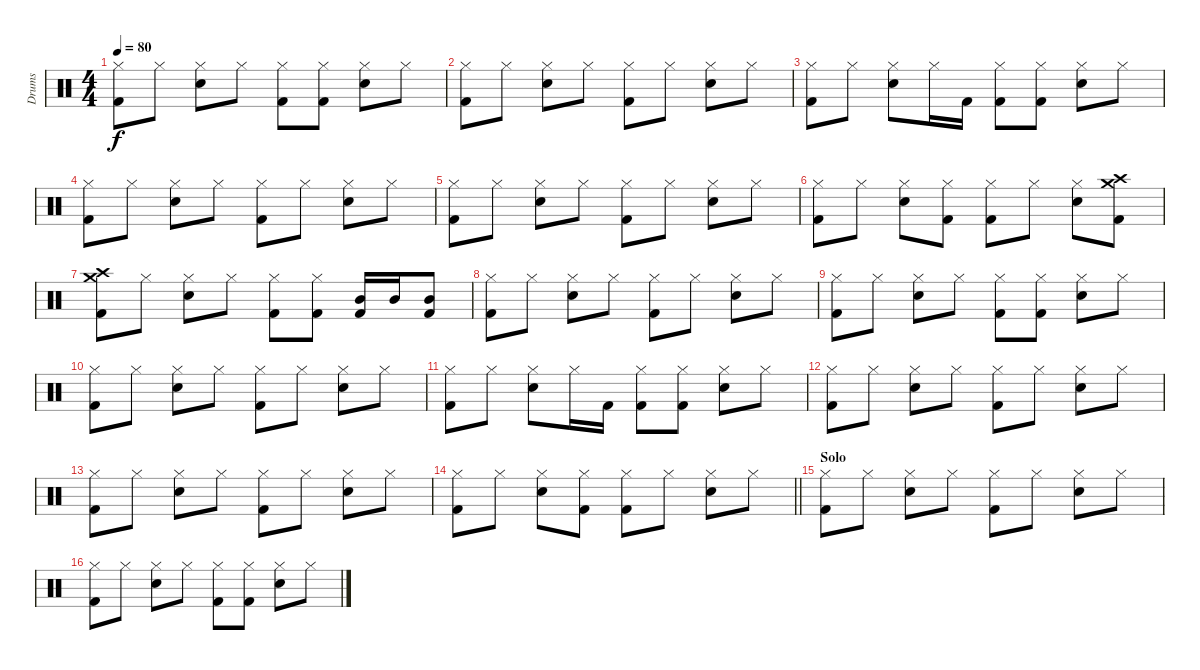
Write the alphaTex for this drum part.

\track ("Drums" "Drums") {instrument percussion}
\staff {score}
\articulation defaults
\ts (4 4)
\tempo 80
\clef neutral
\ks c
("Hi-Hat (closed)" "Kick (hit) 2").8{dy f} "Hi-Hat (closed)".8 ("Hi-Hat (closed)" "Snare (hit) 2").8 "Hi-Hat (closed)".8 ("Hi-Hat (closed)" "Kick (hit) 2").8 ("Hi-Hat (closed)" "Kick (hit) 2").8 ("Hi-Hat (closed)" "Snare (hit) 2").8 "Hi-Hat (closed)".8 |
("Hi-Hat (closed)" "Kick (hit) 2").8 "Hi-Hat (closed)".8 ("Hi-Hat (closed)" "Snare (hit) 2").8 "Hi-Hat (closed)".8 ("Hi-Hat (closed)" "Kick (hit) 2").8 "Hi-Hat (closed)".8 ("Hi-Hat (closed)" "Snare (hit) 2").8 "Hi-Hat (closed)".8 |
("Hi-Hat (closed)" "Kick (hit) 2").8 "Hi-Hat (closed)".8 ("Hi-Hat (closed)" "Snare (hit) 2").8 "Hi-Hat (closed)".16 "Kick (hit) 2".16 ("Hi-Hat (closed)" "Kick (hit) 2").8 ("Hi-Hat (closed)" "Kick (hit) 2").8 ("Hi-Hat (closed)" "Snare (hit) 2").8 "Hi-Hat (closed)".8 |
("Hi-Hat (closed)" "Kick (hit) 2").8 "Hi-Hat (closed)".8 ("Hi-Hat (closed)" "Snare (hit) 2").8 "Hi-Hat (closed)".8 ("Hi-Hat (closed)" "Kick (hit) 2").8 "Hi-Hat (closed)".8 ("Hi-Hat (closed)" "Snare (hit) 2").8 "Hi-Hat (closed)".8 |
("Hi-Hat (closed)" "Kick (hit) 2").8 "Hi-Hat (closed)".8 ("Hi-Hat (closed)" "Snare (hit) 2").8 "Hi-Hat (closed)".8 ("Hi-Hat (closed)" "Kick (hit) 2").8 "Hi-Hat (closed)".8 ("Hi-Hat (closed)" "Snare (hit) 2").8 "Hi-Hat (closed)".8 |
("Hi-Hat (closed)" "Kick (hit) 2").8 "Hi-Hat (closed)".8 ("Hi-Hat (closed)" "Snare (hit) 2").8 ("Hi-Hat (closed)" "Kick (hit) 2").8 ("Hi-Hat (closed)" "Kick (hit) 2").8 "Hi-Hat (closed)".8 ("Hi-Hat (closed)" "Snare (hit) 2").8 ("Crash medium (hit)" "Crash high (hit)" "Kick (hit) 2").8 |
("Crash medium (hit)" "Crash high (hit)" "Kick (hit) 2").8 "Hi-Hat (closed)".8 ("Hi-Hat (closed)" "Snare (hit) 2").8 "Hi-Hat (closed)".8 ("Hi-Hat (closed)" "Kick (hit) 2").8 ("Hi-Hat (closed)" "Kick (hit) 2").8 ("Mid Tom (hit)" "Kick (hit) 2").16 "Mid Tom (hit)".16 ("Mid Tom (hit)" "Kick (hit) 2").8 |
("Hi-Hat (closed)" "Kick (hit) 2").8 "Hi-Hat (closed)".8 ("Hi-Hat (closed)" "Snare (hit) 2").8 "Hi-Hat (closed)".8 ("Hi-Hat (closed)" "Kick (hit) 2").8 "Hi-Hat (closed)".8 ("Hi-Hat (closed)" "Snare (hit) 2").8 "Hi-Hat (closed)".8 |
("Hi-Hat (closed)" "Kick (hit) 2").8 "Hi-Hat (closed)".8 ("Hi-Hat (closed)" "Snare (hit) 2").8 "Hi-Hat (closed)".8 ("Hi-Hat (closed)" "Kick (hit) 2").8 ("Hi-Hat (closed)" "Kick (hit) 2").8 ("Hi-Hat (closed)" "Snare (hit) 2").8 "Hi-Hat (closed)".8 |
("Hi-Hat (closed)" "Kick (hit) 2").8 "Hi-Hat (closed)".8 ("Hi-Hat (closed)" "Snare (hit) 2").8 "Hi-Hat (closed)".8 ("Hi-Hat (closed)" "Kick (hit) 2").8 "Hi-Hat (closed)".8 ("Hi-Hat (closed)" "Snare (hit) 2").8 "Hi-Hat (closed)".8 |
("Hi-Hat (closed)" "Kick (hit) 2").8 "Hi-Hat (closed)".8 ("Hi-Hat (closed)" "Snare (hit) 2").8 "Hi-Hat (closed)".16 "Kick (hit) 2".16 ("Hi-Hat (closed)" "Kick (hit) 2").8 ("Hi-Hat (closed)" "Kick (hit) 2").8 ("Hi-Hat (closed)" "Snare (hit) 2").8 "Hi-Hat (closed)".8 |
("Hi-Hat (closed)" "Kick (hit) 2").8 "Hi-Hat (closed)".8 ("Hi-Hat (closed)" "Snare (hit) 2").8 "Hi-Hat (closed)".8 ("Hi-Hat (closed)" "Kick (hit) 2").8 "Hi-Hat (closed)".8 ("Hi-Hat (closed)" "Snare (hit) 2").8 "Hi-Hat (closed)".8 |
("Hi-Hat (closed)" "Kick (hit) 2").8 "Hi-Hat (closed)".8 ("Hi-Hat (closed)" "Snare (hit) 2").8 "Hi-Hat (closed)".8 ("Hi-Hat (closed)" "Kick (hit) 2").8 "Hi-Hat (closed)".8 ("Hi-Hat (closed)" "Snare (hit) 2").8 "Hi-Hat (closed)".8 |
\barLineRight lightlight
("Hi-Hat (closed)" "Kick (hit) 2").8 "Hi-Hat (closed)".8 ("Hi-Hat (closed)" "Snare (hit) 2").8 ("Hi-Hat (closed)" "Kick (hit) 2").8 ("Hi-Hat (closed)" "Kick (hit) 2").8 "Hi-Hat (closed)".8 ("Hi-Hat (closed)" "Snare (hit) 2").8 "Hi-Hat (closed)".8 |
\section ("" "Solo")
("Hi-Hat (closed)" "Kick (hit) 2").8 "Hi-Hat (closed)".8 ("Hi-Hat (closed)" "Snare (hit) 2").8 "Hi-Hat (closed)".8 ("Hi-Hat (closed)" "Kick (hit) 2").8 "Hi-Hat (closed)".8 ("Hi-Hat (closed)" "Snare (hit) 2").8 "Hi-Hat (closed)".8 |
("Hi-Hat (closed)" "Kick (hit) 2").8 "Hi-Hat (closed)".8 ("Hi-Hat (closed)" "Snare (hit) 2").8 "Hi-Hat (closed)".8 ("Hi-Hat (closed)" "Kick (hit) 2").8 ("Hi-Hat (closed)" "Kick (hit) 2").8 ("Hi-Hat (closed)" "Snare (hit) 2").8 "Hi-Hat (closed)".8
